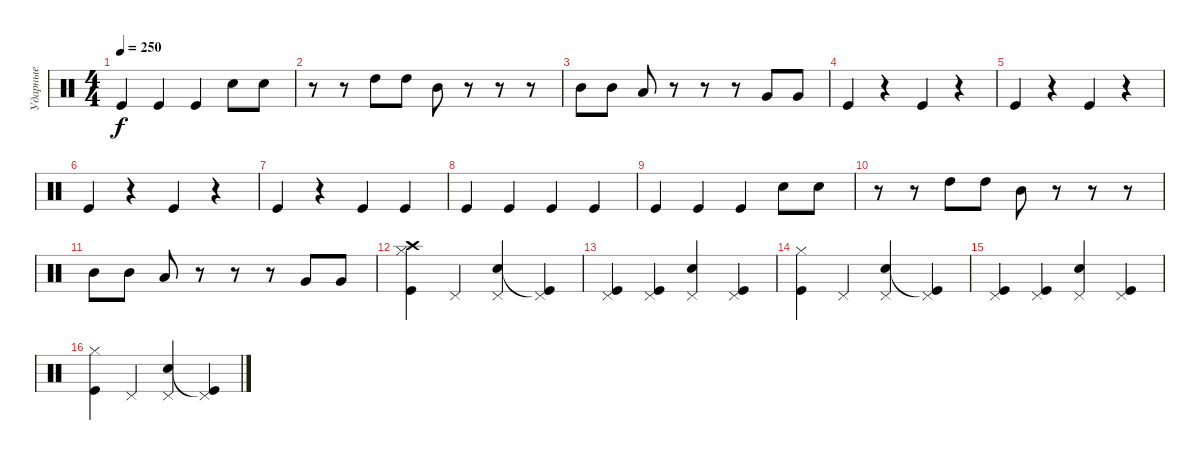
\track ("Ударные" "Ударные") {instrument percussion}
\staff {score}
\articulation defaults
\ts (4 4)
\tempo 250
\clef neutral
\ks c "Kick (hit)".4{dy f} "Kick (hit)".4 "Kick (hit)".4 "Electric Snare (hit)".8 "Electric Snare (hit)".8
|
r.8 r.8 "High Tom (hit)".8 "High Tom (hit)".8 "Mid Tom (hit)".8 r.8 r.8 r.8 |
"Mid Tom (hit)".8 "Mid Tom (hit)".8 "Low Tom (hit)".8 r.8 r.8 r.8 "Very Low Tom (hit)".8 "Very Low Tom (hit)".8 |
"Kick (hit)".4 r.4 "Kick (hit)".4 r.4 |
"Kick (hit)".4 r.4 "Kick (hit)".4 r.4 |
"Kick (hit)".4 r.4 "Kick (hit)".4 r.4 |
"Kick (hit)".4 r.4 "Kick (hit)".4 "Kick (hit)".4 |
"Kick (hit)".4 "Kick (hit)".4 "Kick (hit)".4 "Kick (hit)".4 |
"Kick (hit)".4 "Kick (hit)".4 "Kick (hit)".4 "Electric Snare (hit)".8 "Electric Snare (hit)".8 |
r.8 r.8 "High Tom (hit)".8 "High Tom (hit)".8 "Mid Tom (hit)".8 r.8 r.8 r.8 |
"Mid Tom (hit)".8 "Mid Tom (hit)".8 "Low Tom (hit)".8 r.8 r.8 r.8 "Very Low Tom (hit)".8 "Very Low Tom (hit)".8 |
("Kick (hit)" "Hi-Hat (closed)" "Crash high (hit)").4 "Pedal Hi-Hat (hit)".4 ("Electric Snare (hit)" "Pedal Hi-Hat (hit)").4 ("Kick (hit)"{t} "Pedal Hi-Hat (hit)").4 |
("Kick (hit)" "Pedal Hi-Hat (hit)").4 ("Kick (hit)" "Pedal Hi-Hat (hit)").4 ("Electric Snare (hit)" "Pedal Hi-Hat (hit)").4 ("Kick (hit)" "Pedal Hi-Hat (hit)").4 |
("Kick (hit)" "Hi-Hat (closed)").4 "Pedal Hi-Hat (hit)".4 ("Electric Snare (hit)" "Pedal Hi-Hat (hit)").4 ("Kick (hit)"{t} "Pedal Hi-Hat (hit)").4 |
("Kick (hit)" "Pedal Hi-Hat (hit)").4 ("Kick (hit)" "Pedal Hi-Hat (hit)").4 ("Electric Snare (hit)" "Pedal Hi-Hat (hit)").4 ("Kick (hit)" "Pedal Hi-Hat (hit)").4 |
("Kick (hit)" "Hi-Hat (closed)").4 "Pedal Hi-Hat (hit)".4 ("Electric Snare (hit)" "Pedal Hi-Hat (hit)").4 ("Kick (hit)"{t} "Pedal Hi-Hat (hit)").4
